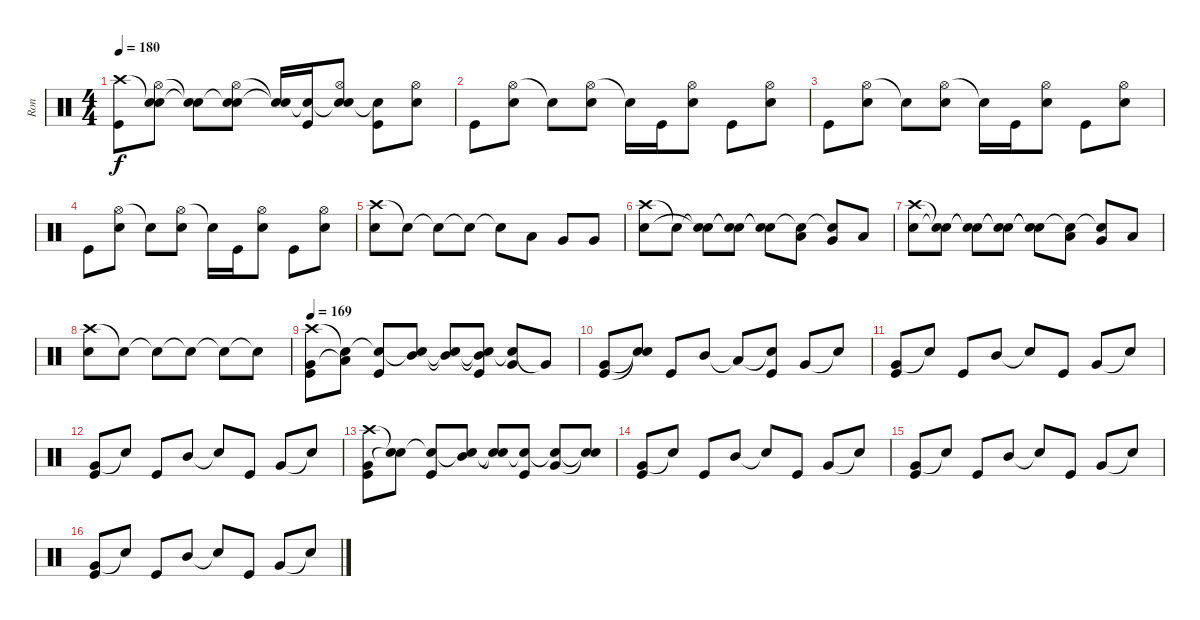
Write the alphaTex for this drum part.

\track ("Ron" "Ron") {instrument percussion}
\staff {score}
\articulation defaults
\ts (4 4)
\tempo 180
\clef neutral
\ks c
("Crash high (hit)" "Kick (hit)").8{dy f} ("Snare (hit)"{t} "Hi-Hat (open)" "Electric Snare (hit)").8 ("Snare (hit)"{t} "Snare (hit)"{t}).8 ("Snare (hit)"{t} "Hi-Hat (open)" "Electric Snare (hit)").8 ("Snare (hit)"{t} "Snare (hit)"{t}).16 ("Snare (hit)"{t} "Kick (hit)").16 ("Snare (hit)"{t} "Hi-Hat (open)" "Electric Snare (hit)").8 ("Snare (hit)"{t} "Kick (hit)").8 ("Hi-Hat (open)" "Electric Snare (hit)").8 |
"Kick (hit)".8 ("Hi-Hat (open)" "Electric Snare (hit)").8 "Snare (hit)"{t}.8 ("Hi-Hat (open)" "Electric Snare (hit)").8 "Snare (hit)"{t}.16 "Kick (hit)".16 ("Hi-Hat (open)" "Electric Snare (hit)").8 "Kick (hit)".8 ("Hi-Hat (open)" "Electric Snare (hit)").8 |
"Kick (hit)".8 ("Hi-Hat (open)" "Electric Snare (hit)").8 "Snare (hit)"{t}.8 ("Hi-Hat (open)" "Electric Snare (hit)").8 "Snare (hit)"{t}.16 "Kick (hit)".16 ("Hi-Hat (open)" "Electric Snare (hit)").8 "Kick (hit)".8 ("Hi-Hat (open)" "Electric Snare (hit)").8 |
"Kick (hit)".8 ("Hi-Hat (open)" "Electric Snare (hit)").8 "Snare (hit)"{t}.8 ("Hi-Hat (open)" "Electric Snare (hit)").8 "Snare (hit)"{t}.16 "Kick (hit)".16 ("Hi-Hat (open)" "Electric Snare (hit)").8 "Kick (hit)".8 ("Hi-Hat (open)" "Electric Snare (hit)").8 |
("Crash high (hit)" "Electric Snare (hit)").8 "Snare (hit)"{t}.8 "Snare (hit)"{t}.8 "Snare (hit)"{t}.8 "Snare (hit)"{t}.8 "Low Tom (hit)".8 "Very Low Tom (hit)".8 "Very Low Tom (hit)".8 |
("Crash high (hit)" "Electric Snare (hit)").8 "Snare (hit)"{t}.8 ("Snare (hit)"{t} "Snare (hit)"{t}).8 ("Snare (hit)"{t} "Snare (hit)"{t}).8 ("Snare (hit)"{t} "Snare (hit)"{t}).8 ("Snare (hit)"{t} "Low Tom (hit)").8 ("Snare (hit)"{t} "Very Low Tom (hit)").8 "Low Floor Tom (hit)".8 |
("Crash high (hit)" "Electric Snare (hit)").8 ("Snare (hit)"{t} "Snare (hit)"{t}).8 ("Snare (hit)"{t} "Snare (hit)"{t}).8 ("Snare (hit)"{t} "Snare (hit)"{t}).8 ("Snare (hit)"{t} "Snare (hit)"{t}).8 ("Snare (hit)"{t} "Low Tom (hit)").8 ("Snare (hit)"{t} "Very Low Tom (hit)").8 "Low Floor Tom (hit)".8 |
("Crash high (hit)" "Electric Snare (hit)").8 "Snare (hit)"{t}.8 "Snare (hit)"{t}.8 "Snare (hit)"{t}.8 "Snare (hit)"{t}.8 "Snare (hit)"{t}.8 |
\tempo 169
("Crash high (hit)" "Very Low Tom (hit)" "Kick (hit)").8 ("Snare (hit)"{t} "Low Tom (hit)"{t}).8 ("Snare (hit)"{t} "Kick (hit)").8 ("Snare (hit)"{t} "Mid Tom (hit)").8 ("Snare (hit)"{t} "Mid Tom (hit)"{t}).8 ("Snare (hit)"{t} "Mid Tom (hit)"{t} "Kick (hit)").8 ("Snare (hit)"{t} "Very Low Tom (hit)").8 "Very Low Tom (hit)"{t}.8 |
("Very Low Tom (hit)" "Kick (hit)").8 ("Snare (hit)"{t} "Snare (hit)"{t}).8 "Kick (hit)".8 "Mid Tom (hit)".8 "Low Tom (hit)"{t}.8 ("Snare (hit)"{t} "Kick (hit)").8 "Very Low Tom (hit)".8 "Snare (hit)"{t}.8 |
("Very Low Tom (hit)" "Kick (hit)").8 "Snare (hit)"{t}.8 "Kick (hit)".8 "Mid Tom (hit)".8 "Snare (hit)"{t}.8 "Kick (hit)".8 "Very Low Tom (hit)".8 "Snare (hit)"{t}.8 |
("Very Low Tom (hit)" "Kick (hit)").8 "Snare (hit)"{t}.8 "Kick (hit)".8 "Mid Tom (hit)".8 "Snare (hit)"{t}.8 "Kick (hit)".8 "Very Low Tom (hit)".8 "Snare (hit)"{t}.8 |
("Crash high (hit)" "Very Low Tom (hit)" "Kick (hit)").8 ("Snare (hit)"{t} "Snare (hit)"{t}).8 ("Snare (hit)"{t} "Kick (hit)").8 ("Snare (hit)"{t} "Mid Tom (hit)").8 ("Snare (hit)"{t} "Snare (hit)"{t}).8 ("Snare (hit)"{t} "Kick (hit)").8 ("Snare (hit)"{t} "Very Low Tom (hit)").8 ("Snare (hit)"{t} "Snare (hit)"{t}).8 |
("Very Low Tom (hit)" "Kick (hit)").8 "Snare (hit)"{t}.8 "Kick (hit)".8 "Mid Tom (hit)".8 "Snare (hit)"{t}.8 "Kick (hit)".8 "Very Low Tom (hit)".8 "Snare (hit)"{t}.8 |
("Very Low Tom (hit)" "Kick (hit)").8 "Snare (hit)"{t}.8 "Kick (hit)".8 "Mid Tom (hit)".8 "Snare (hit)"{t}.8 "Kick (hit)".8 "Very Low Tom (hit)".8 "Snare (hit)"{t}.8 |
("Very Low Tom (hit)" "Kick (hit)").8 "Snare (hit)"{t}.8 "Kick (hit)".8 "Mid Tom (hit)".8 "Snare (hit)"{t}.8 "Kick (hit)".8 "Very Low Tom (hit)".8 "Snare (hit)"{t}.8
